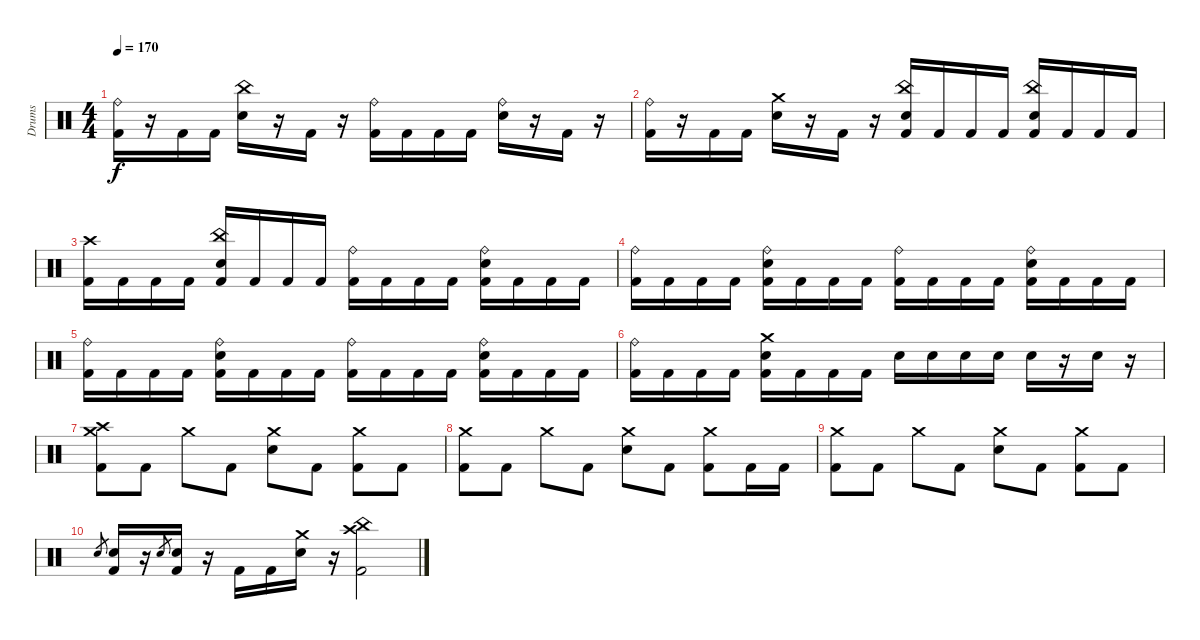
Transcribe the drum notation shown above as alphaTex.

\track ("Drums" "Drums") {instrument percussion}
\staff {score}
\articulation defaults
\ts (4 4)
\tempo 170
\clef neutral
\ks c
("Ride (bell)" "Kick (hit) 2").16{dy f} r.16 "Kick (hit) 2".16 "Kick (hit) 2".16 ("China (hit)" "Electric Snare (hit)").16 r.16 "Kick (hit) 2".16 r.16 ("Ride (bell)" "Kick (hit) 2").16 "Kick (hit) 2".16 "Kick (hit) 2".16 "Kick (hit) 2".16 ("Ride (bell)" "Electric Snare (hit)").16 r.16 "Kick (hit) 2".16 r.16 |
("Ride (bell)" "Kick (hit) 2").16 r.16 "Kick (hit) 2".16 "Kick (hit) 2".16 ("Crash medium (hit)" "Electric Snare (hit)").16 r.16 "Kick (hit) 2".16 r.16 ("China (hit)" "Electric Snare (hit)" "Kick (hit) 2").16 "Kick (hit) 2".16 "Kick (hit) 2".16 "Kick (hit) 2".16 ("China (hit)" "Electric Snare (hit)" "Kick (hit) 2").16 "Kick (hit) 2".16 "Kick (hit) 2".16 "Kick (hit) 2".16 |
("Crash high (hit)" "Kick (hit) 2").16 "Kick (hit) 2".16 "Kick (hit) 2".16 "Kick (hit) 2".16 ("China (hit)" "Electric Snare (hit)" "Kick (hit) 2").16 "Kick (hit) 2".16 "Kick (hit) 2".16 "Kick (hit) 2".16 ("Ride (bell)" "Kick (hit) 2").16 "Kick (hit) 2".16 "Kick (hit) 2".16 "Kick (hit) 2".16 ("Ride (bell)" "Electric Snare (hit)" "Kick (hit) 2").16 "Kick (hit) 2".16 "Kick (hit) 2".16 "Kick (hit) 2".16 |
("Ride (bell)" "Kick (hit) 2").16 "Kick (hit) 2".16 "Kick (hit) 2".16 "Kick (hit) 2".16 ("Ride (bell)" "Electric Snare (hit)" "Kick (hit) 2").16 "Kick (hit) 2".16 "Kick (hit) 2".16 "Kick (hit) 2".16 ("Ride (bell)" "Kick (hit) 2").16 "Kick (hit) 2".16 "Kick (hit) 2".16 "Kick (hit) 2".16 ("Ride (bell)" "Electric Snare (hit)" "Kick (hit) 2").16 "Kick (hit) 2".16 "Kick (hit) 2".16 "Kick (hit) 2".16 |
("Ride (bell)" "Kick (hit) 2").16 "Kick (hit) 2".16 "Kick (hit) 2".16 "Kick (hit) 2".16 ("Ride (bell)" "Electric Snare (hit)" "Kick (hit) 2").16 "Kick (hit) 2".16 "Kick (hit) 2".16 "Kick (hit) 2".16 ("Ride (bell)" "Kick (hit) 2").16 "Kick (hit) 2".16 "Kick (hit) 2".16 "Kick (hit) 2".16 ("Ride (bell)" "Electric Snare (hit)" "Kick (hit) 2").16 "Kick (hit) 2".16 "Kick (hit) 2".16 "Kick (hit) 2".16 |
("Ride (bell)" "Kick (hit) 2").16 "Kick (hit) 2".16 "Kick (hit) 2".16 "Kick (hit) 2".16 ("Crash medium (hit)" "Electric Snare (hit)" "Kick (hit) 2").16 "Kick (hit) 2".16 "Kick (hit) 2".16 "Kick (hit) 2".16 "Electric Snare (hit)".16 "Electric Snare (hit)".16 "Electric Snare (hit)".16 "Electric Snare (hit)".16 "Electric Snare (hit)".16 r.16 "Electric Snare (hit)".16 r.16 |
("Crash medium (hit)" "Crash high (hit)" "Kick (hit) 2").8 "Kick (hit) 2".8 "Crash medium (hit)".8 "Kick (hit) 2".8 ("Crash medium (hit)" "Electric Snare (hit)").8 "Kick (hit) 2".8 ("Crash medium (hit)" "Kick (hit) 2").8 "Kick (hit) 2".8 |
("Crash medium (hit)" "Kick (hit) 2").8 "Kick (hit) 2".8 "Crash medium (hit)".8 "Kick (hit) 2".8 ("Crash medium (hit)" "Electric Snare (hit)").8 "Kick (hit) 2".8 ("Crash medium (hit)" "Kick (hit) 2").8 "Kick (hit) 2".16 "Kick (hit) 2".16 |
("Crash medium (hit)" "Kick (hit) 2").8 "Kick (hit) 2".8 "Crash medium (hit)".8 "Kick (hit) 2".8 ("Crash medium (hit)" "Electric Snare (hit)").8 "Kick (hit) 2".8 ("Crash medium (hit)" "Kick (hit) 2").8 "Kick (hit) 2".8 |
"Electric Snare (hit)".8{gr} ("Electric Snare (hit)" "Kick (hit) 2").16 r.16 "Electric Snare (hit)".8{gr} ("Electric Snare (hit)" "Kick (hit) 2").16 r.16 "Kick (hit) 2".16 "Kick (hit) 2".16 ("Crash medium (hit)" "Electric Snare (hit)").16 r.16 ("Crash high (hit)" "China (hit)" "Kick (hit) 2").2
